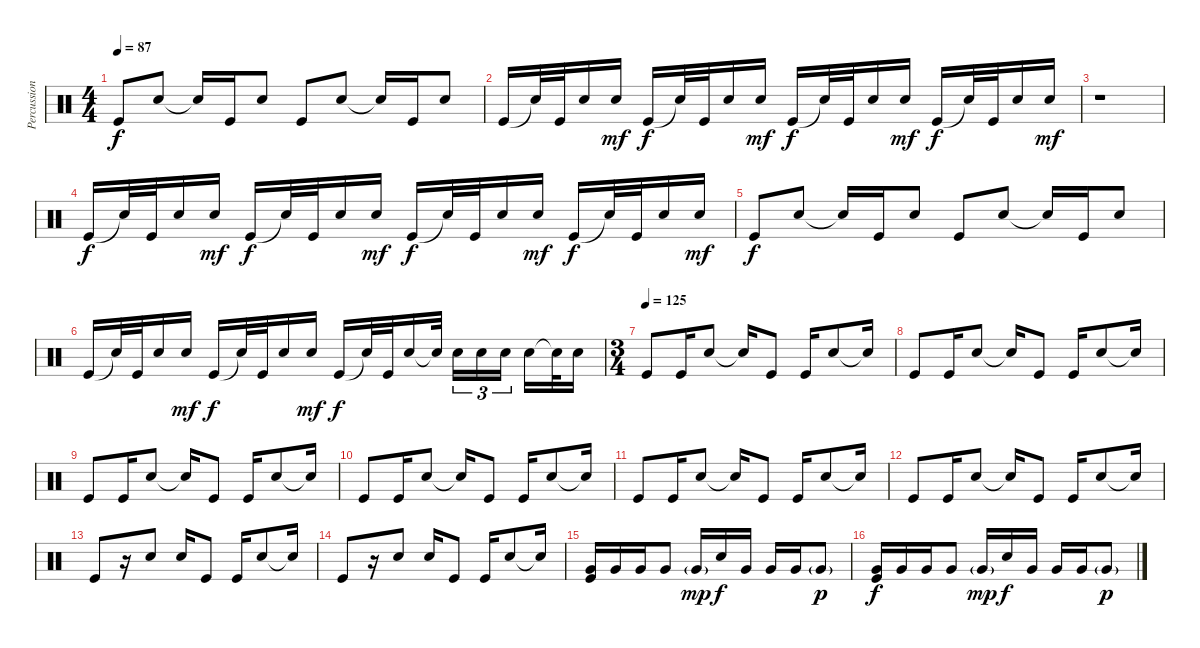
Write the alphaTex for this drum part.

\track ("Percussion" "Percussion") {instrument percussion}
\staff {score}
\articulation defaults
\ts (4 4)
\tempo 87
\clef neutral
\ks c "Kick (hit)".8{dy f} "Electric Snare (hit)".8 "Snare (hit)"{t}.16 "Kick (hit)".16 "Electric Snare (hit)".8 "Kick (hit)".8 "Electric Snare (hit)".8 "Snare (hit)"{t}.16 "Kick (hit)".16 "Electric Snare (hit)".8
|
"Kick (hit)".16 "Snare (hit)"{t}.32 "Kick (hit)".32 "Electric Snare (hit)".16 "Electric Snare (hit)".16{dy mf} "Kick (hit)".16{dy f} "Snare (hit)"{t}.32 "Kick (hit)".32 "Electric Snare (hit)".16 "Electric Snare (hit)".16{dy mf} "Kick (hit)".16{dy f} "Snare (hit)"{t}.32 "Kick (hit)".32 "Electric Snare (hit)".16 "Electric Snare (hit)".16{dy mf} "Kick (hit)".16{dy f} "Snare (hit)"{t}.32 "Kick (hit)".32 "Electric Snare (hit)".16 "Electric Snare (hit)".16{dy mf} |
r.1 |
"Kick (hit)".16{dy f} "Snare (hit)"{t}.32 "Kick (hit)".32 "Electric Snare (hit)".16 "Electric Snare (hit)".16{dy mf} "Kick (hit)".16{dy f} "Snare (hit)"{t}.32 "Kick (hit)".32 "Electric Snare (hit)".16 "Electric Snare (hit)".16{dy mf} "Kick (hit)".16{dy f} "Snare (hit)"{t}.32 "Kick (hit)".32 "Electric Snare (hit)".16 "Electric Snare (hit)".16{dy mf} "Kick (hit)".16{dy f} "Snare (hit)"{t}.32 "Kick (hit)".32 "Electric Snare (hit)".16 "Electric Snare (hit)".16{dy mf} |
"Kick (hit)".8{dy f} "Electric Snare (hit)".8 "Snare (hit)"{t}.16 "Kick (hit)".16 "Electric Snare (hit)".8 "Kick (hit)".8 "Electric Snare (hit)".8 "Snare (hit)"{t}.16 "Kick (hit)".16 "Electric Snare (hit)".8 |
"Kick (hit)".16 "Snare (hit)"{t}.32 "Kick (hit)".32 "Electric Snare (hit)".16 "Electric Snare (hit)".16{dy mf} "Kick (hit)".16{dy f} "Snare (hit)"{t}.32 "Kick (hit)".32 "Electric Snare (hit)".16 "Electric Snare (hit)".16{dy mf} "Kick (hit)".16{dy f} "Snare (hit)"{t}.32 "Kick (hit)".32 "Electric Snare (hit)".16 "Snare (hit)"{t}.32 "Electric Snare (hit)".16{tu (3 2)} "Electric Snare (hit)".16{tu (3 2)} "Electric Snare (hit)".16{tu (3 2)} "Electric Snare (hit)".16 "Snare (hit)"{t}.32 "Electric Snare (hit)".16 |
\ts (3 4)
\tempo (125)
"Kick (hit)".8 "Kick (hit)".16 "Electric Snare (hit)".8 "Snare (hit)"{t}.16 "Kick (hit)".8 "Kick (hit)".16 "Electric Snare (hit)".8 "Snare (hit)"{t}.16 |
"Kick (hit)".8 "Kick (hit)".16 "Electric Snare (hit)".8 "Snare (hit)"{t}.16 "Kick (hit)".8 "Kick (hit)".16 "Electric Snare (hit)".8 "Snare (hit)"{t}.16 |
"Kick (hit)".8 "Kick (hit)".16 "Electric Snare (hit)".8 "Snare (hit)"{t}.16 "Kick (hit)".8 "Kick (hit)".16 "Electric Snare (hit)".8 "Snare (hit)"{t}.16 |
"Kick (hit)".8 "Kick (hit)".16 "Electric Snare (hit)".8 "Snare (hit)"{t}.16 "Kick (hit)".8 "Kick (hit)".16 "Electric Snare (hit)".8 "Snare (hit)"{t}.16 |
"Kick (hit)".8 "Kick (hit)".16 "Electric Snare (hit)".8 "Snare (hit)"{t}.16 "Kick (hit)".8 "Kick (hit)".16 "Electric Snare (hit)".8 "Snare (hit)"{t}.16 |
"Kick (hit)".8 "Kick (hit)".16 "Electric Snare (hit)".8 "Snare (hit)"{t}.16 "Kick (hit)".8 "Kick (hit)".16 "Electric Snare (hit)".8 "Snare (hit)"{t}.16 |
"Kick (hit)".8 r.16 "Electric Snare (hit)".8 "Electric Snare (hit)".16 "Kick (hit)".8 "Kick (hit)".16 "Electric Snare (hit)".8 "Snare (hit)"{t}.16 |
"Kick (hit)".8 r.16 "Electric Snare (hit)".8 "Electric Snare (hit)".16 "Kick (hit)".8 "Kick (hit)".16 "Electric Snare (hit)".8 "Snare (hit)"{t}.16 |
("Very Low Tom (hit)" "Kick (hit)").16 "Very Low Tom (hit)".16 "Very Low Tom (hit)".16 "Very Low Tom (hit)".8 "Very Low Tom (hit)"{g}.16{dy mp} "Electric Snare (hit)".16{dy f} "Very Low Tom (hit)".16 "Very Low Tom (hit)".16 "Very Low Tom (hit)".16 "Very Low Tom (hit)"{g}.8{dy p} |
("Very Low Tom (hit)" "Kick (hit)").16{dy f} "Very Low Tom (hit)".16 "Very Low Tom (hit)".16 "Very Low Tom (hit)".8 "Very Low Tom (hit)"{g}.16{dy mp} "Electric Snare (hit)".16{dy f} "Very Low Tom (hit)".16 "Very Low Tom (hit)".16 "Very Low Tom (hit)".16 "Very Low Tom (hit)"{g}.8{dy p}
